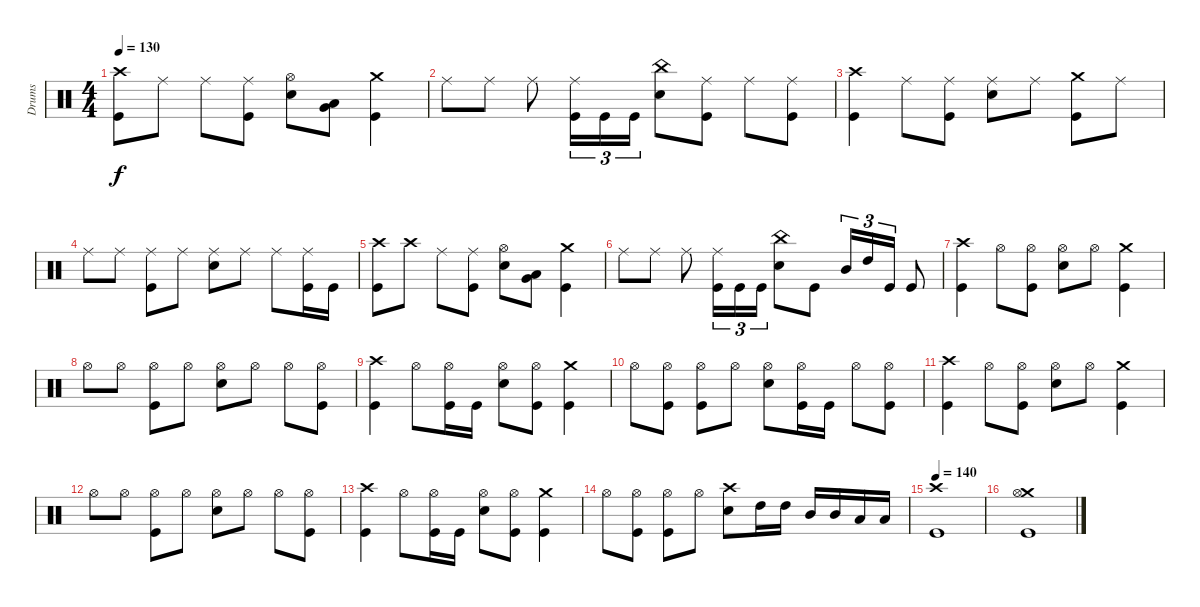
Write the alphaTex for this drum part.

\track ("Drums" "Drums") {instrument percussion}
\staff {score}
\articulation defaults
\ts (4 4)
\tempo 130
\clef neutral
\ks c
("Crash high (hit)" "Kick (hit)").8{dy f} "Ride (middle)".8 "Ride (middle)".8 ("Ride (middle)" "Kick (hit)").8 ("Hi-Hat (open)" "Snare (hit) 2").8 ("Very Low Tom (hit)" "Low Tom (hit)").8 ("Crash medium (hit)" "Kick (hit)").4 |
"Ride (middle)".8 "Ride (middle)".8 "Ride (middle)".8 ("Ride (middle)" "Kick (hit)").16{tu (3 2)} "Kick (hit)".16{tu (3 2)} "Kick (hit)".16{tu (3 2)} ("China (hit)" "Snare (hit) 2").8 ("Ride (middle)" "Kick (hit)").8 "Ride (middle)".8 ("Ride (middle)" "Kick (hit)").8 |
("Crash high (hit)" "Kick (hit)").4 "Ride (middle)".8 ("Ride (middle)" "Kick (hit)").8 ("Ride (middle)" "Snare (hit) 2").8 "Ride (middle)".8 ("Crash medium (hit)" "Kick (hit)").8 "Ride (middle)".8 |
"Ride (middle)".8 "Ride (middle)".8 ("Ride (middle)" "Kick (hit)").8 "Ride (middle)".8 ("Ride (middle)" "Snare (hit) 2").8 "Ride (middle)".8 "Ride (middle)".8 ("Ride (middle)" "Kick (hit)").16 "Kick (hit)".16 |
("Crash high (hit)" "Kick (hit)").8 "Crash high (hit)".8 "Ride (middle)".8 ("Ride (middle)" "Kick (hit)").8 ("Hi-Hat (open)" "Snare (hit) 2").8 ("Very Low Tom (hit)" "Low Tom (hit)").8 ("Crash medium (hit)" "Kick (hit)").4 |
"Ride (middle)".8 "Ride (middle)".8 "Ride (middle)".8 ("Ride (middle)" "Kick (hit)").16{tu (3 2)} "Kick (hit)".16{tu (3 2)} "Kick (hit)".16{tu (3 2)} ("China (hit)" "Snare (hit) 2").8 "Kick (hit)".8 "Mid Tom (hit)".16{tu (3 2)} "High Tom (hit)".16{tu (3 2)} "Kick (hit)".16{tu (3 2)} "Kick (hit)".8 |
("Crash high (hit)" "Kick (hit)").4 "Hi-Hat (open)".8 ("Hi-Hat (open)" "Kick (hit)").8 ("Hi-Hat (open)" "Snare (hit) 2").8 "Hi-Hat (open)".8 ("Crash medium (hit)" "Kick (hit)").4 |
"Hi-Hat (open)".8 "Hi-Hat (open)".8 ("Hi-Hat (open)" "Kick (hit)").8 "Hi-Hat (open)".8 ("Hi-Hat (open)" "Snare (hit) 2").8 "Hi-Hat (open)".8 "Hi-Hat (open)".8 ("Hi-Hat (open)" "Kick (hit)").8 |
("Crash high (hit)" "Kick (hit)").4 "Hi-Hat (open)".8 ("Hi-Hat (open)" "Kick (hit)").16 "Kick (hit)".16 ("Hi-Hat (open)" "Snare (hit) 2").8 ("Hi-Hat (open)" "Kick (hit)").8 ("Crash medium (hit)" "Kick (hit)").4 |
"Hi-Hat (open)".8 ("Hi-Hat (open)" "Kick (hit)").8 ("Hi-Hat (open)" "Kick (hit)").8 "Hi-Hat (open)".8 ("Hi-Hat (open)" "Snare (hit) 2").8 ("Hi-Hat (open)" "Kick (hit)").16 "Kick (hit)".16 "Hi-Hat (open)".8 ("Hi-Hat (open)" "Kick (hit)").8 |
("Crash high (hit)" "Kick (hit)").4 "Hi-Hat (open)".8 ("Hi-Hat (open)" "Kick (hit)").8 ("Hi-Hat (open)" "Snare (hit) 2").8 "Hi-Hat (open)".8 ("Crash medium (hit)" "Kick (hit)").4 |
"Hi-Hat (open)".8 "Hi-Hat (open)".8 ("Hi-Hat (open)" "Kick (hit)").8 "Hi-Hat (open)".8 ("Hi-Hat (open)" "Snare (hit) 2").8 "Hi-Hat (open)".8 "Hi-Hat (open)".8 ("Hi-Hat (open)" "Kick (hit)").8 |
("Crash high (hit)" "Kick (hit)").4 "Hi-Hat (open)".8 ("Hi-Hat (open)" "Kick (hit)").16 "Kick (hit)".16 ("Hi-Hat (open)" "Snare (hit) 2").8 ("Hi-Hat (open)" "Kick (hit)").8 ("Crash medium (hit)" "Kick (hit)").4 |
"Hi-Hat (open)".8 ("Hi-Hat (open)" "Kick (hit)").8 ("Hi-Hat (open)" "Kick (hit)").8 "Hi-Hat (open)".8 ("Crash high (hit)" "Snare (hit) 2").8 "High Tom (hit)".16 "High Tom (hit)".16 "Mid Tom (hit)".16 "Mid Tom (hit)".16 "Low Tom (hit)".16 "Low Tom (hit)".16 |
\tempo 140
("Crash high (hit)" "Kick (hit)").1 |
("Crash medium (hit)" "Hi-Hat (open)" "Kick (hit)").1
